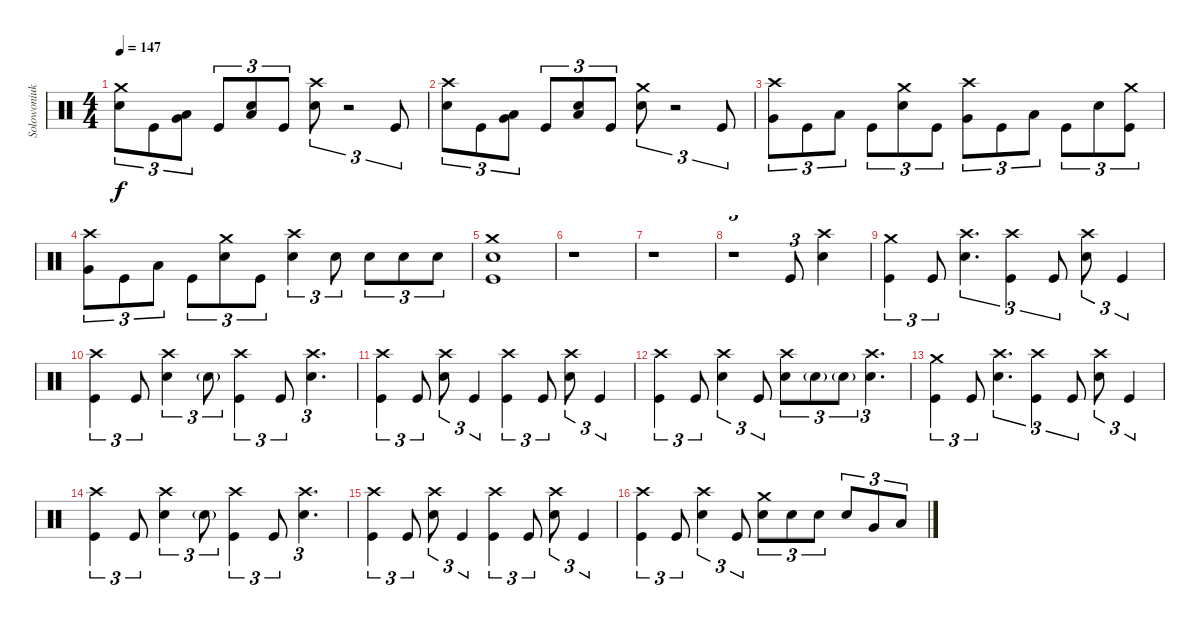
\track ("Solowoniuk " "Solowoniuk") {instrument percussion}
\staff {score}
\articulation defaults
\ts (4 4)
\tempo 147
\clef neutral
\ks c
("Crash medium (hit)" "Snare (hit) 2").8{tu (3 2) dy f} "Kick (hit)".8{tu (3 2)} ("Very Low Tom (hit)" "Low Floor Tom (hit)").8{tu (3 2)} "Kick (hit)".8{tu (3 2)} ("Low Floor Tom (hit)" "Snare (hit) 2").8{tu (3 2)} "Kick (hit)".8{tu (3 2)} ("Crash high (hit)" "Snare (hit) 2").8{tu (3 2)} r.2{tu (3 2)} "Kick (hit)".8{tu (3 2)} |
("Crash high (hit)" "Snare (hit) 2").8{tu (3 2)} "Kick (hit)".8{tu (3 2)} ("Very Low Tom (hit)" "Low Floor Tom (hit)").8{tu (3 2)} "Kick (hit)".8{tu (3 2)} ("Low Floor Tom (hit)" "Snare (hit) 2").8{tu (3 2)} "Kick (hit)".8{tu (3 2)} ("Crash medium (hit)" "Snare (hit) 2").8{tu (3 2)} r.2{tu (3 2)} "Kick (hit)".8{tu (3 2)} |
("Crash high (hit)" "Very Low Tom (hit)").8{tu (3 2)} "Kick (hit)".8{tu (3 2)} "Low Floor Tom (hit)".8{tu (3 2)} "Kick (hit)".8{tu (3 2)} ("Crash medium (hit)" "Snare (hit) 2").8{tu (3 2)} "Kick (hit)".8{tu (3 2)} ("Crash high (hit)" "Very Low Tom (hit)").8{tu (3 2)} "Kick (hit)".8{tu (3 2)} "Low Floor Tom (hit)".8{tu (3 2)} "Kick (hit)".8{tu (3 2)} "Snare (hit) 2".8{tu (3 2)} ("Crash medium (hit)" "Kick (hit)").8{tu (3 2)} |
("Crash high (hit)" "Very Low Tom (hit)").8{tu (3 2)} "Kick (hit)".8{tu (3 2)} "Low Floor Tom (hit)".8{tu (3 2)} "Kick (hit)".8{tu (3 2)} ("Crash medium (hit)" "Snare (hit) 2").8{tu (3 2)} "Kick (hit)".8{tu (3 2)} ("Crash high (hit)" "Snare (hit) 2").4{tu (3 2)} "Snare (hit) 2".8{tu (3 2)} "Snare (hit) 2".8{tu (3 2)} "Snare (hit) 2".8{tu (3 2)} "Snare (hit) 2".8{tu (3 2)} |
("Crash medium (hit)" "Snare (hit) 2" "Kick (hit)").1 |
r.1 |
r.1 |
r.1{tu (3 2)} "Kick (hit)".8{tu (3 2)} ("Crash high (hit)" "Snare (hit) 2").4 |
("Crash medium (hit)" "Kick (hit)").4{tu (3 2)} "Kick (hit)".8{tu (3 2)} ("Crash high (hit)" "Snare (hit) 2").4{d tu (3 2)} ("Crash high (hit)" "Kick (hit)").4{tu (3 2)} "Kick (hit)".8{tu (3 2)} ("Crash high (hit)" "Snare (hit) 2").8{tu (3 2)} "Kick (hit)".4{tu (3 2)} |
("Crash high (hit)" "Kick (hit)").4{tu (3 2)} "Kick (hit)".8{tu (3 2)} ("Crash high (hit)" "Snare (hit) 2").4{tu (3 2)} "Snare (hit) 2"{g}.8{tu (3 2)} ("Crash high (hit)" "Kick (hit)").4{tu (3 2)} "Kick (hit)".8{tu (3 2)} ("Crash high (hit)" "Snare (hit) 2").4{d tu (3 2)} |
("Crash high (hit)" "Kick (hit)").4{tu (3 2)} "Kick (hit)".8{tu (3 2)} ("Crash high (hit)" "Snare (hit) 2").8{tu (3 2)} "Kick (hit)".4{tu (3 2)} ("Crash high (hit)" "Kick (hit)").4{tu (3 2)} "Kick (hit)".8{tu (3 2)} ("Crash high (hit)" "Snare (hit) 2").8{tu (3 2)} "Kick (hit)".4{tu (3 2)} |
("Crash high (hit)" "Kick (hit)").4{tu (3 2)} "Kick (hit)".8{tu (3 2)} ("Crash high (hit)" "Snare (hit) 2").4{tu (3 2)} "Kick (hit)".8{tu (3 2)} ("Crash high (hit)" "Snare (hit) 2").8{tu (3 2)} "Snare (hit) 2"{g}.8{tu (3 2)} "Snare (hit) 2"{g}.8{tu (3 2)} ("Crash high (hit)" "Snare (hit) 2").4{d tu (3 2)} |
("Crash medium (hit)" "Kick (hit)").4{tu (3 2)} "Kick (hit)".8{tu (3 2)} ("Crash high (hit)" "Snare (hit) 2").4{d tu (3 2)} ("Crash high (hit)" "Kick (hit)").4{tu (3 2)} "Kick (hit)".8{tu (3 2)} ("Crash high (hit)" "Snare (hit) 2").8{tu (3 2)} "Kick (hit)".4{tu (3 2)} |
("Crash high (hit)" "Kick (hit)").4{tu (3 2)} "Kick (hit)".8{tu (3 2)} ("Crash high (hit)" "Snare (hit) 2").4{tu (3 2)} "Snare (hit) 2"{g}.8{tu (3 2)} ("Crash high (hit)" "Kick (hit)").4{tu (3 2)} "Kick (hit)".8{tu (3 2)} ("Crash high (hit)" "Snare (hit) 2").4{d tu (3 2)} |
("Crash high (hit)" "Kick (hit)").4{tu (3 2)} "Kick (hit)".8{tu (3 2)} ("Crash high (hit)" "Snare (hit) 2").8{tu (3 2)} "Kick (hit)".4{tu (3 2)} ("Crash high (hit)" "Kick (hit)").4{tu (3 2)} "Kick (hit)".8{tu (3 2)} ("Crash high (hit)" "Snare (hit) 2").8{tu (3 2)} "Kick (hit)".4{tu (3 2)} |
("Crash high (hit)" "Kick (hit)").4{tu (3 2)} "Kick (hit)".8{tu (3 2)} ("Crash high (hit)" "Snare (hit) 2").4{tu (3 2)} "Kick (hit)".8{tu (3 2)} ("Crash medium (hit)" "Snare (hit) 2").8{tu (3 2)} "Snare (hit) 2".8{tu (3 2)} "Snare (hit) 2".8{tu (3 2)} "Snare (hit) 2".8{tu (3 2)} "Very Low Tom (hit)".8{tu (3 2)} "Low Floor Tom (hit)".8{tu (3 2)}
